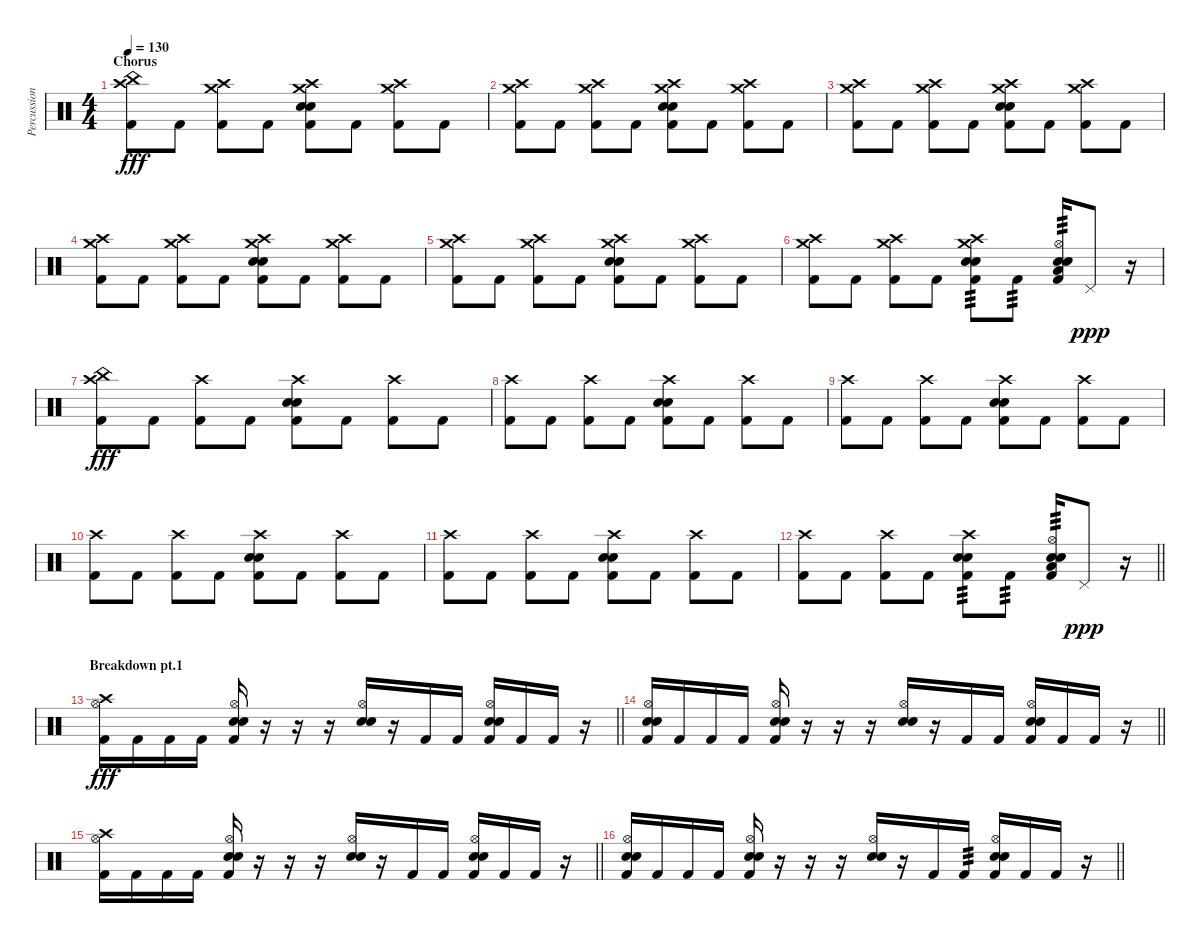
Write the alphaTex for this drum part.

\track ("Percussion" "Percussion") {instrument percussion}
\staff {score}
\articulation defaults
\ts (4 4)
\section ("" "Chorus")
\tempo 130
\clef neutral
\ks c
("China (hit)" "Crash high (hit)" "Kick (hit) 2").8{dy fff} "Kick (hit) 2".8 ("Crash medium (hit)" "Crash high (hit)" "Kick (hit) 2").8 "Kick (hit) 2".8 ("Crash medium (hit)" "Crash high (hit)" "Snare (hit) 2" "Snare (hit) 2" "Kick (hit) 2").8 "Kick (hit) 2".8 ("Crash medium (hit)" "Crash high (hit)" "Kick (hit) 2").8 "Kick (hit) 2".8 |
("Crash medium (hit)" "Crash high (hit)" "Kick (hit) 2").8 "Kick (hit) 2".8 ("Crash medium (hit)" "Crash high (hit)" "Kick (hit) 2").8 "Kick (hit) 2".8 ("Crash medium (hit)" "Crash high (hit)" "Snare (hit) 2" "Snare (hit) 2" "Kick (hit) 2").8 "Kick (hit) 2".8 ("Crash medium (hit)" "Crash high (hit)" "Kick (hit) 2").8 "Kick (hit) 2".8 |
("Crash medium (hit)" "Crash high (hit)" "Kick (hit) 2").8 "Kick (hit) 2".8 ("Crash medium (hit)" "Crash high (hit)" "Kick (hit) 2").8 "Kick (hit) 2".8 ("Crash medium (hit)" "Crash high (hit)" "Snare (hit) 2" "Snare (hit) 2" "Kick (hit) 2").8 "Kick (hit) 2".8 ("Crash medium (hit)" "Crash high (hit)" "Kick (hit) 2").8 "Kick (hit) 2".8 |
("Crash medium (hit)" "Crash high (hit)" "Kick (hit) 2").8 "Kick (hit) 2".8 ("Crash medium (hit)" "Crash high (hit)" "Kick (hit) 2").8 "Kick (hit) 2".8 ("Crash medium (hit)" "Crash high (hit)" "Snare (hit) 2" "Snare (hit) 2" "Kick (hit) 2").8 "Kick (hit) 2".8 ("Crash medium (hit)" "Crash high (hit)" "Kick (hit) 2").8 "Kick (hit) 2".8 |
("Crash medium (hit)" "Crash high (hit)" "Kick (hit) 2").8 "Kick (hit) 2".8 ("Crash medium (hit)" "Crash high (hit)" "Kick (hit) 2").8 "Kick (hit) 2".8 ("Crash medium (hit)" "Crash high (hit)" "Snare (hit) 2" "Snare (hit) 2" "Kick (hit) 2").8 "Kick (hit) 2".8 ("Crash medium (hit)" "Crash high (hit)" "Kick (hit) 2").8 "Kick (hit) 2".8 |
("Crash medium (hit)" "Crash high (hit)" "Kick (hit) 2").8 "Kick (hit) 2".8 ("Crash medium (hit)" "Crash high (hit)" "Kick (hit) 2").8 "Kick (hit) 2".8 ("Crash medium (hit)" "Crash high (hit)" "Snare (hit) 2" "Snare (hit) 2" "Kick (hit) 2").8{tp 3} "Kick (hit) 2".8{tp 3} ("Hi-Hat (open)" "Snare (hit) 2" "Snare (hit) 2" "Low Floor Tom (hit)" "Kick (hit) 2").16{tp 3} "Pedal Hi-Hat (hit)".8{dy ppp} r.16 |
("China (hit)" "Crash high (hit)" "Kick (hit) 2").8{dy fff} "Kick (hit) 2".8 ("Crash high (hit)" "Kick (hit) 2").8 "Kick (hit) 2".8 ("Crash high (hit)" "Snare (hit) 2" "Snare (hit) 2" "Kick (hit) 2").8 "Kick (hit) 2".8 ("Crash high (hit)" "Kick (hit) 2").8 "Kick (hit) 2".8 |
("Crash high (hit)" "Kick (hit) 2").8 "Kick (hit) 2".8 ("Crash high (hit)" "Kick (hit) 2").8 "Kick (hit) 2".8 ("Crash high (hit)" "Snare (hit) 2" "Snare (hit) 2" "Kick (hit) 2").8 "Kick (hit) 2".8 ("Crash high (hit)" "Kick (hit) 2").8 "Kick (hit) 2".8 |
("Crash high (hit)" "Kick (hit) 2").8 "Kick (hit) 2".8 ("Crash high (hit)" "Kick (hit) 2").8 "Kick (hit) 2".8 ("Crash high (hit)" "Snare (hit) 2" "Snare (hit) 2" "Kick (hit) 2").8 "Kick (hit) 2".8 ("Crash high (hit)" "Kick (hit) 2").8 "Kick (hit) 2".8 |
("Crash high (hit)" "Kick (hit) 2").8 "Kick (hit) 2".8 ("Crash high (hit)" "Kick (hit) 2").8 "Kick (hit) 2".8 ("Crash high (hit)" "Snare (hit) 2" "Snare (hit) 2" "Kick (hit) 2").8 "Kick (hit) 2".8 ("Crash high (hit)" "Kick (hit) 2").8 "Kick (hit) 2".8 |
("Crash high (hit)" "Kick (hit) 2").8 "Kick (hit) 2".8 ("Crash high (hit)" "Kick (hit) 2").8 "Kick (hit) 2".8 ("Crash high (hit)" "Snare (hit) 2" "Snare (hit) 2" "Kick (hit) 2").8 "Kick (hit) 2".8 ("Crash high (hit)" "Kick (hit) 2").8 "Kick (hit) 2".8 |
\barLineRight lightlight
("Crash high (hit)" "Kick (hit) 2").8 "Kick (hit) 2".8 ("Crash high (hit)" "Kick (hit) 2").8 "Kick (hit) 2".8 ("Crash high (hit)" "Snare (hit) 2" "Snare (hit) 2" "Kick (hit) 2").8{tp 3} "Kick (hit) 2".8{tp 3} ("Hi-Hat (open)" "Snare (hit) 2" "Snare (hit) 2" "Low Floor Tom (hit)" "Kick (hit) 2").16{tp 3} "Pedal Hi-Hat (hit)".8{dy ppp} r.16 |
\section ("" "Breakdown pt.1")
\barLineRight lightlight
("Hi-Hat (open)" "Crash high (hit)" "Kick (hit) 2").16{dy fff} "Kick (hit) 2".16 "Kick (hit) 2".16 "Kick (hit) 2".16 ("Hi-Hat (open)" "Electric Snare (hit)" "Snare (hit) 2" "Kick (hit) 2").16 r.16 r.16 r.16 ("Hi-Hat (open)" "Electric Snare (hit)" "Snare (hit) 2").16 r.16 "Kick (hit) 2".16 "Kick (hit) 2".16 ("Hi-Hat (open)" "Electric Snare (hit)" "Snare (hit) 2" "Kick (hit) 2").16 "Kick (hit) 2".16 "Kick (hit) 2".16 r.16 |
\barLineRight lightlight
("Hi-Hat (open)" "Electric Snare (hit)" "Snare (hit) 2" "Kick (hit) 2").16 "Kick (hit) 2".16 "Kick (hit) 2".16 "Kick (hit) 2".16 ("Hi-Hat (open)" "Electric Snare (hit)" "Snare (hit) 2" "Kick (hit) 2").16 r.16 r.16 r.16 ("Hi-Hat (open)" "Electric Snare (hit)" "Snare (hit) 2").16 r.16 "Kick (hit) 2".16 "Kick (hit) 2".16 ("Hi-Hat (open)" "Electric Snare (hit)" "Snare (hit) 2" "Kick (hit) 2").16 "Kick (hit) 2".16 "Kick (hit) 2".16 r.16 |
\barLineRight lightlight
("Hi-Hat (open)" "Crash high (hit)" "Kick (hit) 2").16 "Kick (hit) 2".16 "Kick (hit) 2".16 "Kick (hit) 2".16 ("Hi-Hat (open)" "Electric Snare (hit)" "Snare (hit) 2" "Kick (hit) 2").16 r.16 r.16 r.16 ("Hi-Hat (open)" "Electric Snare (hit)" "Snare (hit) 2").16 r.16 "Kick (hit) 2".16 "Kick (hit) 2".16 ("Hi-Hat (open)" "Electric Snare (hit)" "Snare (hit) 2" "Kick (hit) 2").16 "Kick (hit) 2".16 "Kick (hit) 2".16 r.16 |
\barLineRight lightlight
("Hi-Hat (open)" "Electric Snare (hit)" "Snare (hit) 2" "Kick (hit) 2").16 "Kick (hit) 2".16 "Kick (hit) 2".16 "Kick (hit) 2".16 ("Hi-Hat (open)" "Electric Snare (hit)" "Snare (hit) 2" "Kick (hit) 2").16 r.16 r.16 r.16 ("Hi-Hat (open)" "Electric Snare (hit)" "Snare (hit) 2").16 r.16 "Kick (hit) 2".16 "Kick (hit) 2".16{tp 3} ("Hi-Hat (open)" "Electric Snare (hit)" "Snare (hit) 2" "Kick (hit) 2").16 "Kick (hit) 2".16 "Kick (hit) 2".16 r.16
